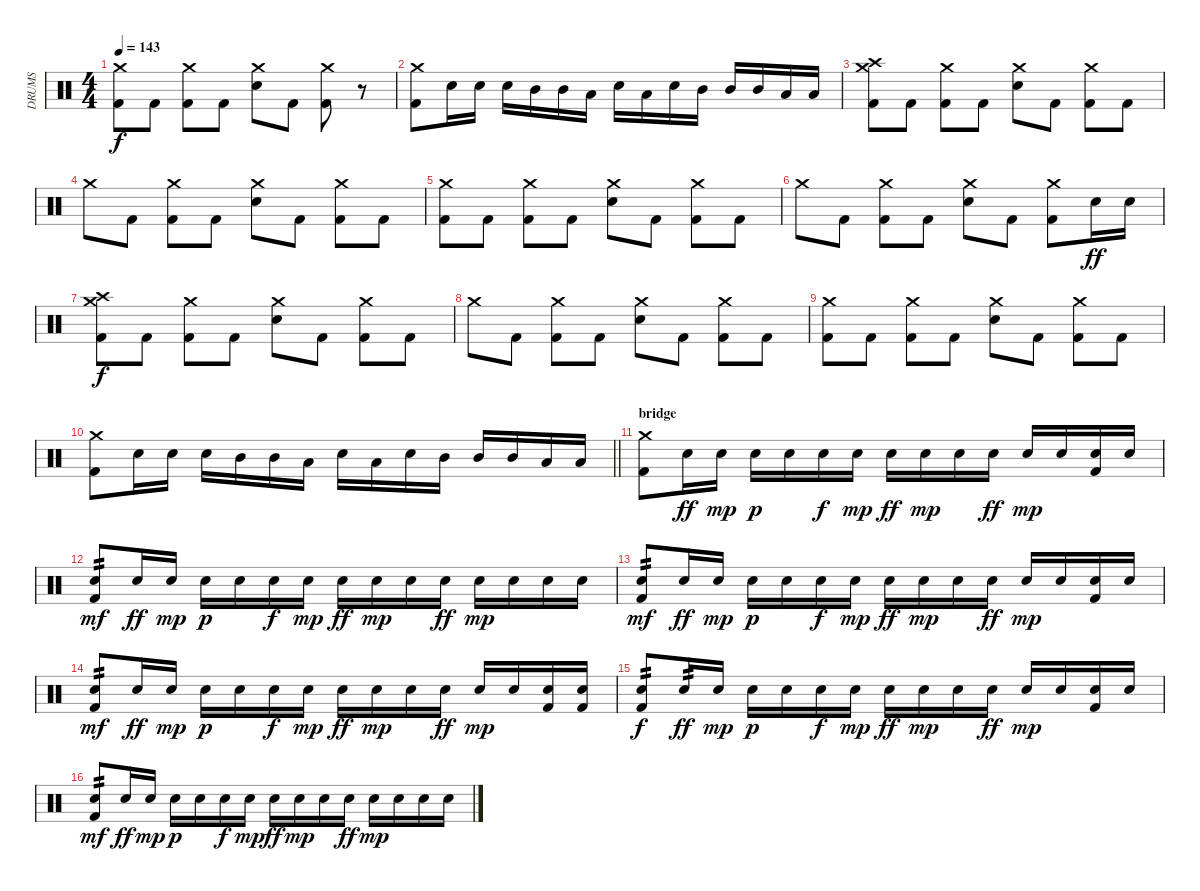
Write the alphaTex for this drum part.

\track ("DRUMS" "DRUMS") {instrument percussion}
\staff {score}
\articulation defaults
\ts (4 4)
\tempo 143
\clef neutral
\ks c
("Crash medium (hit)" "Kick (hit) 2").8{dy f} "Kick (hit) 2".8 ("Crash medium (hit)" "Kick (hit) 2").8 "Kick (hit) 2".8 ("Crash medium (hit)" "Electric Snare (hit)").8 "Kick (hit) 2".8 ("Crash medium (hit)" "Kick (hit) 2").8 r.8 |
("Crash medium (hit)" "Kick (hit) 2").8 "Electric Snare (hit)".16 "Electric Snare (hit)".16 "Electric Snare (hit)".16 "Mid Tom (hit)".16 "Mid Tom (hit)".16 "Low Tom (hit)".16 "Electric Snare (hit)".16 "Low Tom (hit)".16 "Electric Snare (hit)".16 "Mid Tom (hit)".16 "Mid Tom (hit)".16 "Mid Tom (hit)".16 "Low Tom (hit)".16 "Low Tom (hit)".16 |
("Crash medium (hit)" "Crash high (hit)" "Kick (hit) 2").8 "Kick (hit) 2".8 ("Crash medium (hit)" "Kick (hit) 2").8 "Kick (hit) 2".8 ("Crash medium (hit)" "Electric Snare (hit)").8 "Kick (hit) 2".8 ("Crash medium (hit)" "Kick (hit) 2").8 "Kick (hit) 2".8 |
"Crash medium (hit)".8 "Kick (hit) 2".8 ("Crash medium (hit)" "Kick (hit) 2").8 "Kick (hit) 2".8 ("Crash medium (hit)" "Electric Snare (hit)").8 "Kick (hit) 2".8 ("Crash medium (hit)" "Kick (hit) 2").8 "Kick (hit) 2".8 |
("Crash medium (hit)" "Kick (hit) 2").8 "Kick (hit) 2".8 ("Crash medium (hit)" "Kick (hit) 2").8 "Kick (hit) 2".8 ("Crash medium (hit)" "Electric Snare (hit)").8 "Kick (hit) 2".8 ("Crash medium (hit)" "Kick (hit) 2").8 "Kick (hit) 2".8 |
"Crash medium (hit)".8 "Kick (hit) 2".8 ("Crash medium (hit)" "Kick (hit) 2").8 "Kick (hit) 2".8 ("Crash medium (hit)" "Electric Snare (hit)").8 "Kick (hit) 2".8 ("Crash medium (hit)" "Kick (hit) 2").8 "Electric Snare (hit)".16{dy ff} "Electric Snare (hit)".16 |
("Crash medium (hit)" "Crash high (hit)" "Kick (hit) 2").8{dy f} "Kick (hit) 2".8 ("Crash medium (hit)" "Kick (hit) 2").8 "Kick (hit) 2".8 ("Crash medium (hit)" "Electric Snare (hit)").8 "Kick (hit) 2".8 ("Crash medium (hit)" "Kick (hit) 2").8 "Kick (hit) 2".8 |
"Crash medium (hit)".8 "Kick (hit) 2".8 ("Crash medium (hit)" "Kick (hit) 2").8 "Kick (hit) 2".8 ("Crash medium (hit)" "Electric Snare (hit)").8 "Kick (hit) 2".8 ("Crash medium (hit)" "Kick (hit) 2").8 "Kick (hit) 2".8 |
("Crash medium (hit)" "Kick (hit) 2").8 "Kick (hit) 2".8 ("Crash medium (hit)" "Kick (hit) 2").8 "Kick (hit) 2".8 ("Crash medium (hit)" "Electric Snare (hit)").8 "Kick (hit) 2".8 ("Crash medium (hit)" "Kick (hit) 2").8 "Kick (hit) 2".8 |
\barLineRight lightlight
("Crash medium (hit)" "Kick (hit) 2").8 "Electric Snare (hit)".16 "Electric Snare (hit)".16 "Electric Snare (hit)".16 "Mid Tom (hit)".16 "Mid Tom (hit)".16 "Low Tom (hit)".16 "Electric Snare (hit)".16 "Low Tom (hit)".16 "Electric Snare (hit)".16 "Mid Tom (hit)".16 "Mid Tom (hit)".16 "Mid Tom (hit)".16 "Low Tom (hit)".16 "Low Tom (hit)".16 |
\section ("" "bridge")
("Crash medium (hit)" "Kick (hit) 2").8 "Electric Snare (hit)".16{dy ff} "Electric Snare (hit)".16{dy mp} "Electric Snare (hit)".16{dy p} "Electric Snare (hit)".16 "Electric Snare (hit)".16{dy f} "Electric Snare (hit)".16{dy mp} "Electric Snare (hit)".16{dy ff} "Electric Snare (hit)".16{dy mp} "Electric Snare (hit)".16 "Electric Snare (hit)".16{dy ff} "Electric Snare (hit)".16{dy mp} "Electric Snare (hit)".16 ("Electric Snare (hit)" "Kick (hit) 2").16 "Electric Snare (hit)".16 |
("Electric Snare (hit)" "Kick (hit) 2").8{tp 2 dy mf} "Electric Snare (hit)".16{dy ff} "Electric Snare (hit)".16{dy mp} "Electric Snare (hit)".16{dy p} "Electric Snare (hit)".16 "Electric Snare (hit)".16{dy f} "Electric Snare (hit)".16{dy mp} "Electric Snare (hit)".16{dy ff} "Electric Snare (hit)".16{dy mp} "Electric Snare (hit)".16 "Electric Snare (hit)".16{dy ff} "Electric Snare (hit)".16{dy mp} "Electric Snare (hit)".16 "Electric Snare (hit)".16 "Electric Snare (hit)".16 |
("Electric Snare (hit)" "Kick (hit) 2").8{tp 2 dy mf} "Electric Snare (hit)".16{dy ff} "Electric Snare (hit)".16{dy mp} "Electric Snare (hit)".16{dy p} "Electric Snare (hit)".16 "Electric Snare (hit)".16{dy f} "Electric Snare (hit)".16{dy mp} "Electric Snare (hit)".16{dy ff} "Electric Snare (hit)".16{dy mp} "Electric Snare (hit)".16 "Electric Snare (hit)".16{dy ff} "Electric Snare (hit)".16{dy mp} "Electric Snare (hit)".16 ("Electric Snare (hit)" "Kick (hit) 2").16 "Electric Snare (hit)".16 |
("Electric Snare (hit)" "Kick (hit) 2").8{tp 2 dy mf} "Electric Snare (hit)".16{dy ff} "Electric Snare (hit)".16{dy mp} "Electric Snare (hit)".16{dy p} "Electric Snare (hit)".16 "Electric Snare (hit)".16{dy f} "Electric Snare (hit)".16{dy mp} "Electric Snare (hit)".16{dy ff} "Electric Snare (hit)".16{dy mp} "Electric Snare (hit)".16 "Electric Snare (hit)".16{dy ff} "Electric Snare (hit)".16{dy mp} "Electric Snare (hit)".16 ("Electric Snare (hit)" "Kick (hit) 2").16 ("Electric Snare (hit)" "Kick (hit) 2").16 |
("Electric Snare (hit)" "Kick (hit) 2").8{tp 2 dy f} "Electric Snare (hit)".16{tp 2 dy ff} "Electric Snare (hit)".16{dy mp} "Electric Snare (hit)".16{dy p} "Electric Snare (hit)".16 "Electric Snare (hit)".16{dy f} "Electric Snare (hit)".16{dy mp} "Electric Snare (hit)".16{dy ff} "Electric Snare (hit)".16{dy mp} "Electric Snare (hit)".16 "Electric Snare (hit)".16{dy ff} "Electric Snare (hit)".16{dy mp} "Electric Snare (hit)".16 ("Electric Snare (hit)" "Kick (hit) 2").16 "Electric Snare (hit)".16 |
("Electric Snare (hit)" "Kick (hit) 2").8{tp 2 dy mf} "Electric Snare (hit)".16{dy ff} "Electric Snare (hit)".16{dy mp} "Electric Snare (hit)".16{dy p} "Electric Snare (hit)".16 "Electric Snare (hit)".16{dy f} "Electric Snare (hit)".16{dy mp} "Electric Snare (hit)".16{dy ff} "Electric Snare (hit)".16{dy mp} "Electric Snare (hit)".16 "Electric Snare (hit)".16{dy ff} "Electric Snare (hit)".16{dy mp} "Electric Snare (hit)".16 "Electric Snare (hit)".16 "Electric Snare (hit)".16
